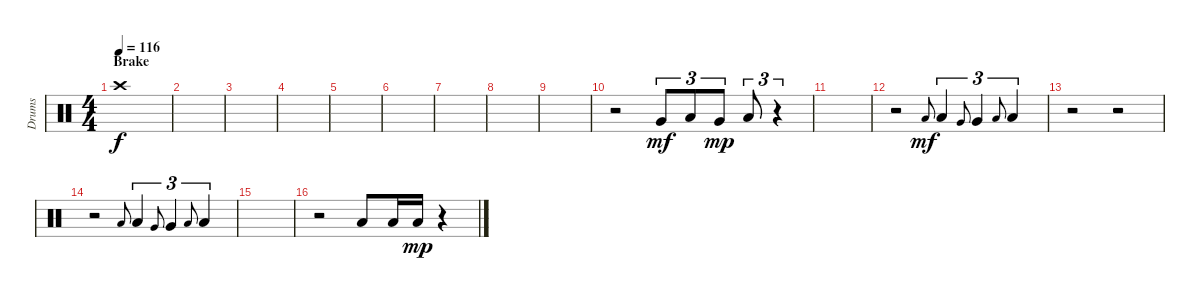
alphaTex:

\track ("Drums" "Drums") {instrument percussion}
\staff {score}
\articulation defaults
\ts (4 4)
\section ("" "Brake")
\tempo 116
\clef neutral
\ks c "Crash high (hit)".1{dy f}
|
|
|
|
|
|
|
|
|
r.2 "Very Low Tom (hit)".8{tu (3 2) dy mf} "Low Tom (hit)".8{tu (3 2)} "Very Low Tom (hit)".8{tu (3 2) dy mp} "Low Floor Tom (hit)".8{tu (3 2)} r.4{tu (3 2)} |
|
r.2 "Low Tom (hit)".8{gr onbeat dy mf} "Low Tom (hit)".4{tu (3 2)} "Very Low Tom (hit)".8{gr onbeat} "Very Low Tom (hit)".4{tu (3 2)} "Low Floor Tom (hit)".8{gr onbeat} "Low Floor Tom (hit)".4{tu (3 2)} |
r.2 r.2 |
r.2 "Low Tom (hit)".8{gr onbeat} "Low Tom (hit)".4{tu (3 2)} "Very Low Tom (hit)".8{gr onbeat} "Very Low Tom (hit)".4{tu (3 2)} "Low Floor Tom (hit)".8{gr onbeat} "Low Floor Tom (hit)".4{tu (3 2)} |
|
r.2 "Low Floor Tom (hit)".8 "Low Tom (hit)".16 "Low Floor Tom (hit)".16{dy mp} r.4
